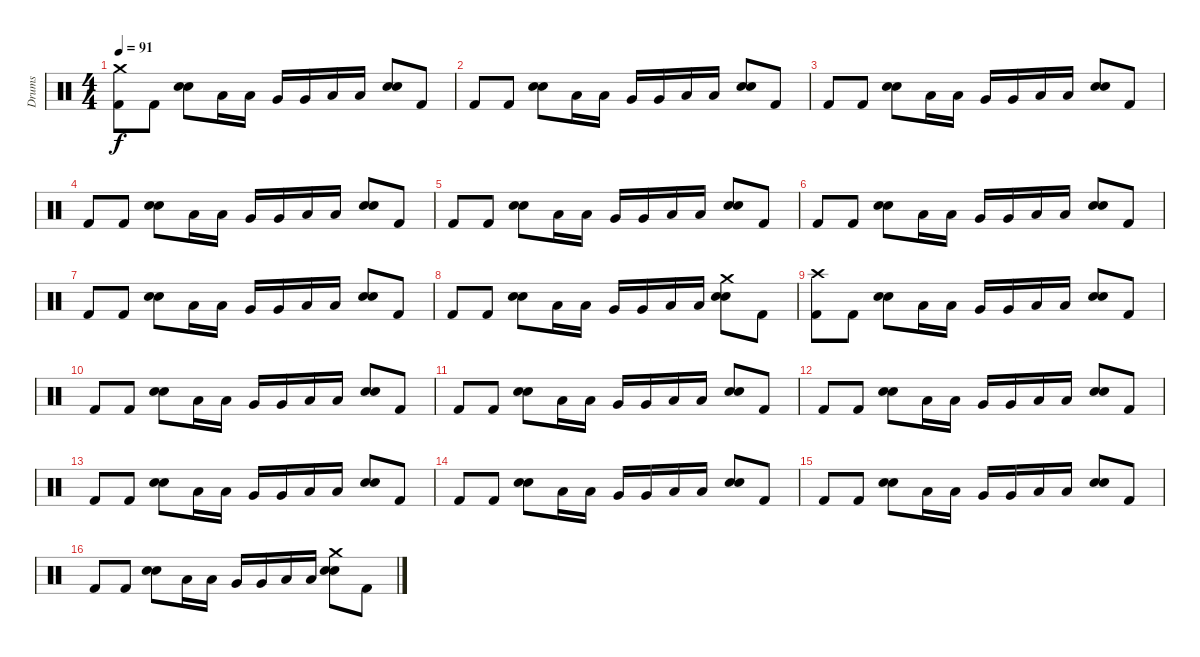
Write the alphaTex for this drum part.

\track ("Drums" "Drums") {instrument percussion}
\staff {score}
\articulation defaults
\ts (4 4)
\tempo 91
\clef neutral
\ks c
("Crash medium (hit)" "Kick (hit) 2").8{dy f} "Kick (hit) 2".8 ("Electric Snare (hit)" "Electric Snare (hit)").8 "Low Tom (hit)".16 "Low Tom (hit)".16 "Very Low Tom (hit)".16 "Very Low Tom (hit)".16 "Low Floor Tom (hit)".16 "Low Floor Tom (hit)".16 ("Electric Snare (hit)" "Electric Snare (hit)").8 "Kick (hit) 2".8 |
"Kick (hit) 2".8 "Kick (hit) 2".8 ("Electric Snare (hit)" "Electric Snare (hit)").8 "Low Tom (hit)".16 "Low Tom (hit)".16 "Very Low Tom (hit)".16 "Very Low Tom (hit)".16 "Low Floor Tom (hit)".16 "Low Floor Tom (hit)".16 ("Electric Snare (hit)" "Electric Snare (hit)").8 "Kick (hit) 2".8 |
"Kick (hit) 2".8 "Kick (hit) 2".8 ("Electric Snare (hit)" "Electric Snare (hit)").8 "Low Tom (hit)".16 "Low Tom (hit)".16 "Very Low Tom (hit)".16 "Very Low Tom (hit)".16 "Low Floor Tom (hit)".16 "Low Floor Tom (hit)".16 ("Electric Snare (hit)" "Electric Snare (hit)").8 "Kick (hit) 2".8 |
"Kick (hit) 2".8 "Kick (hit) 2".8 ("Electric Snare (hit)" "Electric Snare (hit)").8 "Low Tom (hit)".16 "Low Tom (hit)".16 "Very Low Tom (hit)".16 "Very Low Tom (hit)".16 "Low Floor Tom (hit)".16 "Low Floor Tom (hit)".16 ("Electric Snare (hit)" "Electric Snare (hit)").8 "Kick (hit) 2".8 |
"Kick (hit) 2".8 "Kick (hit) 2".8 ("Electric Snare (hit)" "Electric Snare (hit)").8 "Low Tom (hit)".16 "Low Tom (hit)".16 "Very Low Tom (hit)".16 "Very Low Tom (hit)".16 "Low Floor Tom (hit)".16 "Low Floor Tom (hit)".16 ("Electric Snare (hit)" "Electric Snare (hit)").8 "Kick (hit) 2".8 |
"Kick (hit) 2".8 "Kick (hit) 2".8 ("Electric Snare (hit)" "Electric Snare (hit)").8 "Low Tom (hit)".16 "Low Tom (hit)".16 "Very Low Tom (hit)".16 "Very Low Tom (hit)".16 "Low Floor Tom (hit)".16 "Low Floor Tom (hit)".16 ("Electric Snare (hit)" "Electric Snare (hit)").8 "Kick (hit) 2".8 |
"Kick (hit) 2".8 "Kick (hit) 2".8 ("Electric Snare (hit)" "Electric Snare (hit)").8 "Low Tom (hit)".16 "Low Tom (hit)".16 "Very Low Tom (hit)".16 "Very Low Tom (hit)".16 "Low Floor Tom (hit)".16 "Low Floor Tom (hit)".16 ("Electric Snare (hit)" "Electric Snare (hit)").8 "Kick (hit) 2".8 |
"Kick (hit) 2".8 "Kick (hit) 2".8 ("Electric Snare (hit)" "Electric Snare (hit)").8 "Low Tom (hit)".16 "Low Tom (hit)".16 "Very Low Tom (hit)".16 "Very Low Tom (hit)".16 "Low Floor Tom (hit)".16 "Low Floor Tom (hit)".16 ("Crash medium (hit)" "Electric Snare (hit)" "Electric Snare (hit)").8 "Kick (hit) 2".8 |
("Crash high (hit)" "Kick (hit) 2").8 "Kick (hit) 2".8 ("Electric Snare (hit)" "Electric Snare (hit)").8 "Low Tom (hit)".16 "Low Tom (hit)".16 "Very Low Tom (hit)".16 "Very Low Tom (hit)".16 "Low Floor Tom (hit)".16 "Low Floor Tom (hit)".16 ("Electric Snare (hit)" "Electric Snare (hit)").8 "Kick (hit) 2".8 |
"Kick (hit) 2".8 "Kick (hit) 2".8 ("Electric Snare (hit)" "Electric Snare (hit)").8 "Low Tom (hit)".16 "Low Tom (hit)".16 "Very Low Tom (hit)".16 "Very Low Tom (hit)".16 "Low Floor Tom (hit)".16 "Low Floor Tom (hit)".16 ("Electric Snare (hit)" "Electric Snare (hit)").8 "Kick (hit) 2".8 |
"Kick (hit) 2".8 "Kick (hit) 2".8 ("Electric Snare (hit)" "Electric Snare (hit)").8 "Low Tom (hit)".16 "Low Tom (hit)".16 "Very Low Tom (hit)".16 "Very Low Tom (hit)".16 "Low Floor Tom (hit)".16 "Low Floor Tom (hit)".16 ("Electric Snare (hit)" "Electric Snare (hit)").8 "Kick (hit) 2".8 |
"Kick (hit) 2".8 "Kick (hit) 2".8 ("Electric Snare (hit)" "Electric Snare (hit)").8 "Low Tom (hit)".16 "Low Tom (hit)".16 "Very Low Tom (hit)".16 "Very Low Tom (hit)".16 "Low Floor Tom (hit)".16 "Low Floor Tom (hit)".16 ("Electric Snare (hit)" "Electric Snare (hit)").8 "Kick (hit) 2".8 |
"Kick (hit) 2".8 "Kick (hit) 2".8 ("Electric Snare (hit)" "Electric Snare (hit)").8 "Low Tom (hit)".16 "Low Tom (hit)".16 "Very Low Tom (hit)".16 "Very Low Tom (hit)".16 "Low Floor Tom (hit)".16 "Low Floor Tom (hit)".16 ("Electric Snare (hit)" "Electric Snare (hit)").8 "Kick (hit) 2".8 |
"Kick (hit) 2".8 "Kick (hit) 2".8 ("Electric Snare (hit)" "Electric Snare (hit)").8 "Low Tom (hit)".16 "Low Tom (hit)".16 "Very Low Tom (hit)".16 "Very Low Tom (hit)".16 "Low Floor Tom (hit)".16 "Low Floor Tom (hit)".16 ("Electric Snare (hit)" "Electric Snare (hit)").8 "Kick (hit) 2".8 |
"Kick (hit) 2".8 "Kick (hit) 2".8 ("Electric Snare (hit)" "Electric Snare (hit)").8 "Low Tom (hit)".16 "Low Tom (hit)".16 "Very Low Tom (hit)".16 "Very Low Tom (hit)".16 "Low Floor Tom (hit)".16 "Low Floor Tom (hit)".16 ("Electric Snare (hit)" "Electric Snare (hit)").8 "Kick (hit) 2".8 |
"Kick (hit) 2".8 "Kick (hit) 2".8 ("Electric Snare (hit)" "Electric Snare (hit)").8 "Low Tom (hit)".16 "Low Tom (hit)".16 "Very Low Tom (hit)".16 "Very Low Tom (hit)".16 "Low Floor Tom (hit)".16 "Low Floor Tom (hit)".16 ("Crash medium (hit)" "Electric Snare (hit)" "Electric Snare (hit)").8 "Kick (hit) 2".8
